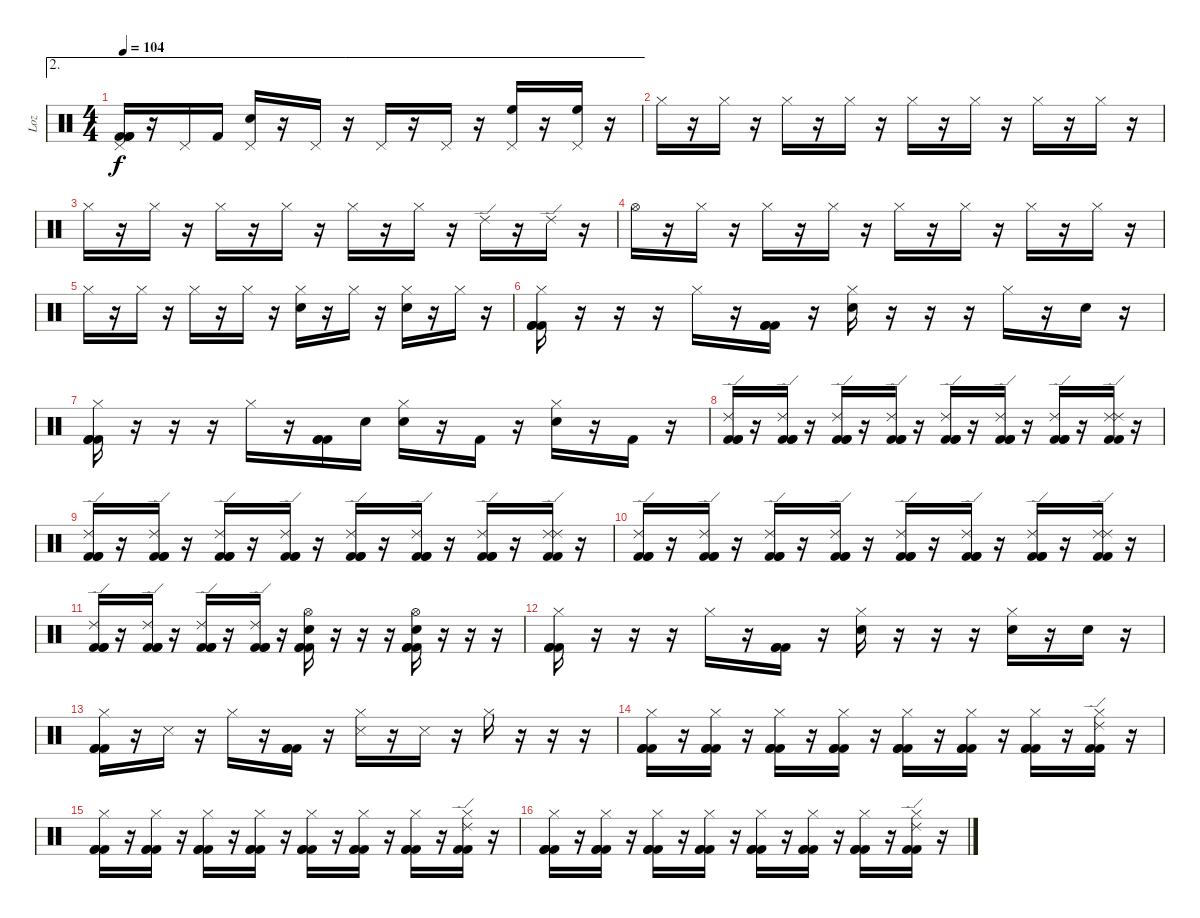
\track ("Loz" "Loz") {instrument percussion}
\staff {score}
\articulation defaults
\ae 2
\ts (4 4)
\tempo 104
\clef neutral
\ks c
("Pedal Hi-Hat (hit)" "Kick (hit) 2" "Kick (hit) 2" "Kick (hit) 2").16{dy f} r.16 "Pedal Hi-Hat (hit)".16 "Kick (hit) 2".16 ("Pedal Hi-Hat (hit)" "Electric Snare (hit)").16 r.16 "Pedal Hi-Hat (hit)".16 r.16 "Pedal Hi-Hat (hit)".16 r.16 "Pedal Hi-Hat (hit)".16 r.16 ("Pedal Hi-Hat (hit)" "High Floor Tom (hit)").16 r.16 ("Pedal Hi-Hat (hit)" "High Floor Tom (hit)").16 r.16 |
"Hi-Hat (closed)".16 r.16 "Hi-Hat (closed)".16 r.16 "Hi-Hat (closed)".16 r.16 "Hi-Hat (closed)".16 r.16 "Hi-Hat (closed)".16 r.16 "Hi-Hat (closed)".16 r.16 "Hi-Hat (closed)".16 r.16 "Hi-Hat (closed)".16 r.16 |
"Hi-Hat (closed)".16 r.16 "Hi-Hat (closed)".16 r.16 "Hi-Hat (closed)".16 r.16 "Hi-Hat (closed)".16 r.16 "Hi-Hat (closed)".16 r.16 "Hi-Hat (closed)".16 r.16 "Ride (edge) 2".16 r.16 "Ride (edge) 2".16 r.16 |
"Hi-Hat (open)".16 r.16 "Hi-Hat (closed)".16 r.16 "Hi-Hat (closed)".16 r.16 "Hi-Hat (closed)".16 r.16 "Hi-Hat (closed)".16 r.16 "Hi-Hat (closed)".16 r.16 "Hi-Hat (closed)".16 r.16 "Hi-Hat (closed)".16 r.16 |
"Hi-Hat (closed)".16 r.16 "Hi-Hat (closed)".16 r.16 "Hi-Hat (closed)".16 r.16 "Hi-Hat (closed)".16 r.16 ("Hi-Hat (closed)" "Electric Snare (hit)").16 r.16 "Hi-Hat (closed)".16 r.16 ("Hi-Hat (closed)" "Electric Snare (hit)").16 r.16 "Hi-Hat (closed)".16 r.16 |
("Hi-Hat (closed)" "Kick (hit) 2" "Kick (hit) 2" "Kick (hit) 2").16 r.16 r.16 r.16 "Hi-Hat (closed)".16 r.16 ("Kick (hit) 2" "Kick (hit) 2" "Kick (hit) 2").16 r.16 ("Hi-Hat (closed)" "Electric Snare (hit)").16 r.16 r.16 r.16 "Hi-Hat (closed)".16 r.16 "Electric Snare (hit)".16 r.16 |
("Hi-Hat (closed)" "Kick (hit) 2" "Kick (hit) 2" "Kick (hit) 2").16 r.16 r.16 r.16 "Hi-Hat (closed)".16 r.16 ("Kick (hit) 2" "Kick (hit) 2" "Kick (hit) 2").16 "Electric Snare (hit)".16 ("Hi-Hat (closed)" "Electric Snare (hit)").16 r.16 "Kick (hit) 2".16 r.16 ("Hi-Hat (closed)" "Electric Snare (hit)").16 r.16 "Kick (hit) 2".16 r.16 |
("Ride (edge) 2" "Kick (hit) 2" "Kick (hit) 2" "Kick (hit) 2").16 r.16 ("Ride (edge) 2" "Kick (hit) 2" "Kick (hit) 2" "Kick (hit) 2").16 r.16 ("Ride (edge) 2" "Kick (hit) 2" "Kick (hit) 2" "Kick (hit) 2").16 r.16 ("Ride (edge) 2" "Kick (hit) 2" "Kick (hit) 2" "Kick (hit) 2").16 r.16 ("Ride (edge) 2" "Kick (hit) 2" "Kick (hit) 2" "Kick (hit) 2").16 r.16 ("Ride (edge) 2" "Kick (hit) 2" "Kick (hit) 2" "Kick (hit) 2").16 r.16 ("Ride (edge) 2" "Kick (hit) 2" "Kick (hit) 2" "Kick (hit) 2").16 r.16 ("Ride (edge) 2" "Kick (hit) 2" "Ride (edge) 2" "Kick (hit) 2").16 r.16 |
("Ride (edge) 2" "Kick (hit) 2" "Kick (hit) 2" "Kick (hit) 2").16 r.16 ("Ride (edge) 2" "Kick (hit) 2" "Kick (hit) 2" "Kick (hit) 2").16 r.16 ("Ride (edge) 2" "Kick (hit) 2" "Kick (hit) 2" "Kick (hit) 2").16 r.16 ("Ride (edge) 2" "Kick (hit) 2" "Kick (hit) 2" "Kick (hit) 2").16 r.16 ("Ride (edge) 2" "Kick (hit) 2" "Kick (hit) 2" "Kick (hit) 2").16 r.16 ("Ride (edge) 2" "Kick (hit) 2" "Kick (hit) 2" "Kick (hit) 2").16 r.16 ("Ride (edge) 2" "Kick (hit) 2" "Kick (hit) 2" "Kick (hit) 2").16 r.16 ("Ride (edge) 2" "Kick (hit) 2" "Ride (edge) 2" "Kick (hit) 2").16 r.16 |
("Ride (edge) 2" "Kick (hit) 2" "Kick (hit) 2" "Kick (hit) 2").16 r.16 ("Ride (edge) 2" "Kick (hit) 2" "Kick (hit) 2" "Kick (hit) 2").16 r.16 ("Ride (edge) 2" "Kick (hit) 2" "Kick (hit) 2" "Kick (hit) 2").16 r.16 ("Ride (edge) 2" "Kick (hit) 2" "Kick (hit) 2" "Kick (hit) 2").16 r.16 ("Ride (edge) 2" "Kick (hit) 2" "Kick (hit) 2" "Kick (hit) 2").16 r.16 ("Ride (edge) 2" "Kick (hit) 2" "Kick (hit) 2" "Kick (hit) 2").16 r.16 ("Ride (edge) 2" "Kick (hit) 2" "Kick (hit) 2" "Kick (hit) 2").16 r.16 ("Ride (edge) 2" "Kick (hit) 2" "Ride (edge) 2" "Kick (hit) 2").16 r.16 |
("Ride (edge) 2" "Kick (hit) 2" "Kick (hit) 2" "Kick (hit) 2").16 r.16 ("Ride (edge) 2" "Kick (hit) 2" "Kick (hit) 2" "Kick (hit) 2").16 r.16 ("Ride (edge) 2" "Kick (hit) 2" "Kick (hit) 2" "Kick (hit) 2").16 r.16 ("Ride (edge) 2" "Kick (hit) 2" "Kick (hit) 2" "Kick (hit) 2").16 r.16 ("Hi-Hat (open)" "Electric Snare (hit)" "Kick (hit) 2" "Kick (hit) 2" "Kick (hit) 2").16 r.16 r.16 r.16 ("Hi-Hat (open)" "Electric Snare (hit)" "Kick (hit) 2" "Kick (hit) 2" "Kick (hit) 2").16 r.16 r.16 r.16 |
("Hi-Hat (closed)" "Kick (hit) 2" "Kick (hit) 2" "Kick (hit) 2").16 r.16 r.16 r.16 "Hi-Hat (closed)".16 r.16 ("Kick (hit) 2" "Kick (hit) 2" "Kick (hit) 2").16 r.16 ("Hi-Hat (closed)" "Electric Snare (hit)").16 r.16 r.16 r.16 ("Hi-Hat (closed)" "Electric Snare (hit)").16 r.16 "Electric Snare (hit)".16 r.16 |
("Hi-Hat (closed)" "Kick (hit) 2" "Kick (hit) 2" "Kick (hit) 2").16 r.16 "Snare (side stick) 3".16 r.16 "Hi-Hat (closed)".16 r.16 ("Kick (hit) 2" "Kick (hit) 2" "Kick (hit) 2").16 r.16 ("Hi-Hat (closed)" "Snare (side stick) 3").16 r.16 "Snare (side stick) 3".16 r.16 "Hi-Hat (closed)".16 r.16 r.16 r.16 |
("Hi-Hat (closed)" "Kick (hit) 2" "Kick (hit) 2" "Kick (hit) 2").16 r.16 ("Hi-Hat (closed)" "Kick (hit) 2" "Kick (hit) 2" "Kick (hit) 2").16 r.16 ("Hi-Hat (closed)" "Kick (hit) 2" "Kick (hit) 2" "Kick (hit) 2").16 r.16 ("Hi-Hat (closed)" "Kick (hit) 2" "Kick (hit) 2" "Kick (hit) 2").16 r.16 ("Hi-Hat (closed)" "Kick (hit) 2" "Kick (hit) 2" "Kick (hit) 2").16 r.16 ("Hi-Hat (closed)" "Kick (hit) 2" "Kick (hit) 2" "Kick (hit) 2").16 r.16 ("Hi-Hat (closed)" "Kick (hit) 2" "Kick (hit) 2" "Kick (hit) 2").16 r.16 ("Hi-Hat (closed)" "Kick (hit) 2" "Ride (edge) 2" "Kick (hit) 2").16 r.16 |
("Hi-Hat (closed)" "Kick (hit) 2" "Kick (hit) 2" "Kick (hit) 2").16 r.16 ("Hi-Hat (closed)" "Kick (hit) 2" "Kick (hit) 2" "Kick (hit) 2").16 r.16 ("Hi-Hat (closed)" "Kick (hit) 2" "Kick (hit) 2" "Kick (hit) 2").16 r.16 ("Hi-Hat (closed)" "Kick (hit) 2" "Kick (hit) 2" "Kick (hit) 2").16 r.16 ("Hi-Hat (closed)" "Kick (hit) 2" "Kick (hit) 2" "Kick (hit) 2").16 r.16 ("Hi-Hat (closed)" "Kick (hit) 2" "Kick (hit) 2" "Kick (hit) 2").16 r.16 ("Hi-Hat (closed)" "Kick (hit) 2" "Kick (hit) 2" "Kick (hit) 2").16 r.16 ("Hi-Hat (closed)" "Kick (hit) 2" "Ride (edge) 2" "Kick (hit) 2").16 r.16 |
("Hi-Hat (closed)" "Kick (hit) 2" "Kick (hit) 2" "Kick (hit) 2").16 r.16 ("Hi-Hat (closed)" "Kick (hit) 2" "Kick (hit) 2" "Kick (hit) 2").16 r.16 ("Hi-Hat (closed)" "Kick (hit) 2" "Kick (hit) 2" "Kick (hit) 2").16 r.16 ("Hi-Hat (closed)" "Kick (hit) 2" "Kick (hit) 2" "Kick (hit) 2").16 r.16 ("Hi-Hat (closed)" "Kick (hit) 2" "Kick (hit) 2" "Kick (hit) 2").16 r.16 ("Hi-Hat (closed)" "Kick (hit) 2" "Kick (hit) 2" "Kick (hit) 2").16 r.16 ("Hi-Hat (closed)" "Kick (hit) 2" "Kick (hit) 2" "Kick (hit) 2").16 r.16 ("Hi-Hat (closed)" "Kick (hit) 2" "Ride (edge) 2" "Kick (hit) 2").16 r.16
